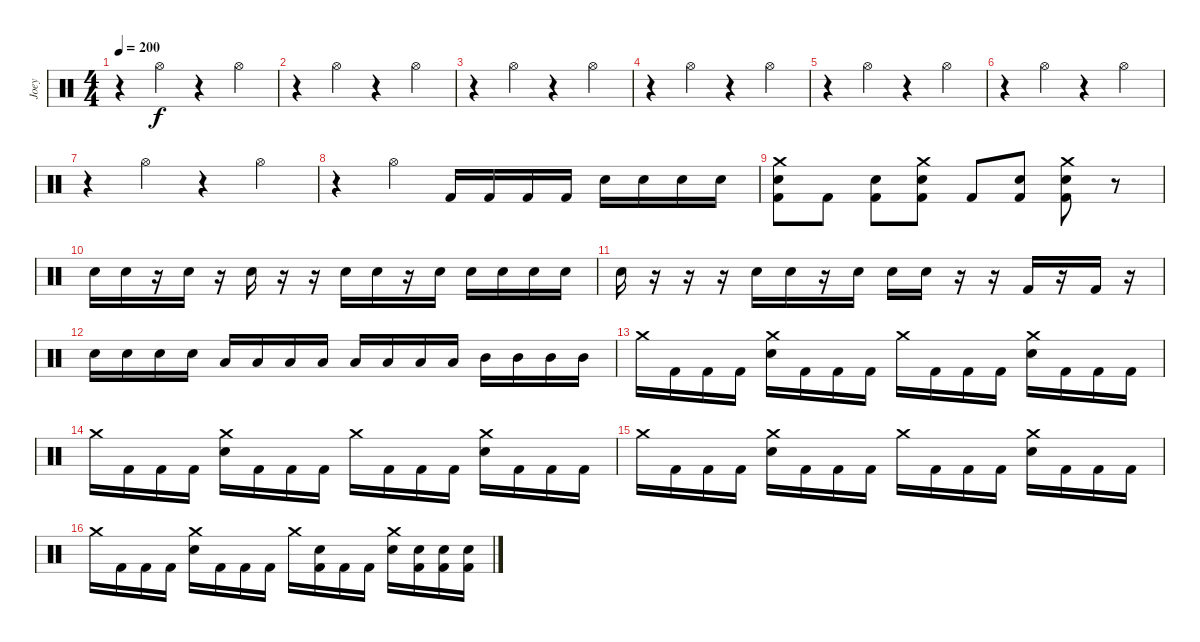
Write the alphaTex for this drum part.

\track ("Joey" "Joey") {instrument percussion}
\staff {score}
\articulation defaults
\ts (4 4)
\tempo 200
\clef neutral
\ks c
r.4{dy f} "Hi-Hat (open)".4 r.4 "Hi-Hat (open)".4 |
r.4 "Hi-Hat (open)".4 r.4 "Hi-Hat (open)".4 |
r.4 "Hi-Hat (open)".4 r.4 "Hi-Hat (open)".4 |
r.4 "Hi-Hat (open)".4 r.4 "Hi-Hat (open)".4 |
r.4 "Hi-Hat (open)".4 r.4 "Hi-Hat (open)".4 |
r.4 "Hi-Hat (open)".4 r.4 "Hi-Hat (open)".4 |
r.4 "Hi-Hat (open)".4 r.4 "Hi-Hat (open)".4 |
r.4 "Hi-Hat (open)".4 "Kick (hit) 2".16 "Kick (hit) 2".16 "Kick (hit) 2".16 "Kick (hit) 2".16 "Electric Snare (hit)".16 "Electric Snare (hit)".16 "Electric Snare (hit)".16 "Electric Snare (hit)".16 |
("Crash medium (hit)" "Electric Snare (hit)" "Kick (hit) 2").8 "Kick (hit) 2".8 ("Electric Snare (hit)" "Kick (hit) 2").8 ("Crash medium (hit)" "Electric Snare (hit)" "Kick (hit) 2").8 "Kick (hit) 2".8 ("Electric Snare (hit)" "Kick (hit) 2").8 ("Crash medium (hit)" "Electric Snare (hit)" "Kick (hit) 2").8 r.8 |
"Electric Snare (hit)".16 "Electric Snare (hit)".16 r.16 "Electric Snare (hit)".16 r.16 "Electric Snare (hit)".16 r.16 r.16 "Electric Snare (hit)".16 "Electric Snare (hit)".16 r.16 "Electric Snare (hit)".16 "Electric Snare (hit)".16 "Electric Snare (hit)".16 "Electric Snare (hit)".16 "Electric Snare (hit)".16 |
"Electric Snare (hit)".16 r.16 r.16 r.16 "Electric Snare (hit)".16 "Electric Snare (hit)".16 r.16 "Electric Snare (hit)".16 "Electric Snare (hit)".16 "Electric Snare (hit)".16 r.16 r.16 "Kick (hit) 2".16 r.16 "Kick (hit) 2".16 r.16 |
"Electric Snare (hit)".16 "Electric Snare (hit)".16 "Electric Snare (hit)".16 "Electric Snare (hit)".16 "Low Floor Tom (hit)".16 "Low Floor Tom (hit)".16 "Low Floor Tom (hit)".16 "Low Floor Tom (hit)".16 "Low Tom (hit)".16 "Low Tom (hit)".16 "Low Tom (hit)".16 "Low Tom (hit)".16 "Mid Tom (hit)".16 "Mid Tom (hit)".16 "Mid Tom (hit)".16 "Mid Tom (hit)".16 |
"Crash medium (hit)".16 "Kick (hit) 2".16 "Kick (hit) 2".16 "Kick (hit) 2".16 ("Crash medium (hit)" "Electric Snare (hit)").16 "Kick (hit) 2".16 "Kick (hit) 2".16 "Kick (hit) 2".16 "Crash medium (hit)".16 "Kick (hit) 2".16 "Kick (hit) 2".16 "Kick (hit) 2".16 ("Crash medium (hit)" "Electric Snare (hit)").16 "Kick (hit) 2".16 "Kick (hit) 2".16 "Kick (hit) 2".16 |
"Crash medium (hit)".16 "Kick (hit) 2".16 "Kick (hit) 2".16 "Kick (hit) 2".16 ("Crash medium (hit)" "Electric Snare (hit)").16 "Kick (hit) 2".16 "Kick (hit) 2".16 "Kick (hit) 2".16 "Crash medium (hit)".16 "Kick (hit) 2".16 "Kick (hit) 2".16 "Kick (hit) 2".16 ("Crash medium (hit)" "Electric Snare (hit)").16 "Kick (hit) 2".16 "Kick (hit) 2".16 "Kick (hit) 2".16 |
"Crash medium (hit)".16 "Kick (hit) 2".16 "Kick (hit) 2".16 "Kick (hit) 2".16 ("Crash medium (hit)" "Electric Snare (hit)").16 "Kick (hit) 2".16 "Kick (hit) 2".16 "Kick (hit) 2".16 "Crash medium (hit)".16 "Kick (hit) 2".16 "Kick (hit) 2".16 "Kick (hit) 2".16 ("Crash medium (hit)" "Electric Snare (hit)").16 "Kick (hit) 2".16 "Kick (hit) 2".16 "Kick (hit) 2".16 |
"Crash medium (hit)".16 "Kick (hit) 2".16 "Kick (hit) 2".16 "Kick (hit) 2".16 ("Crash medium (hit)" "Electric Snare (hit)").16 "Kick (hit) 2".16 "Kick (hit) 2".16 "Kick (hit) 2".16 "Crash medium (hit)".16 ("Electric Snare (hit)" "Kick (hit) 2").16 "Kick (hit) 2".16 "Kick (hit) 2".16 ("Crash medium (hit)" "Electric Snare (hit)").16 ("Electric Snare (hit)" "Kick (hit) 2").16 ("Electric Snare (hit)" "Kick (hit) 2").16 ("Electric Snare (hit)" "Kick (hit) 2").16
